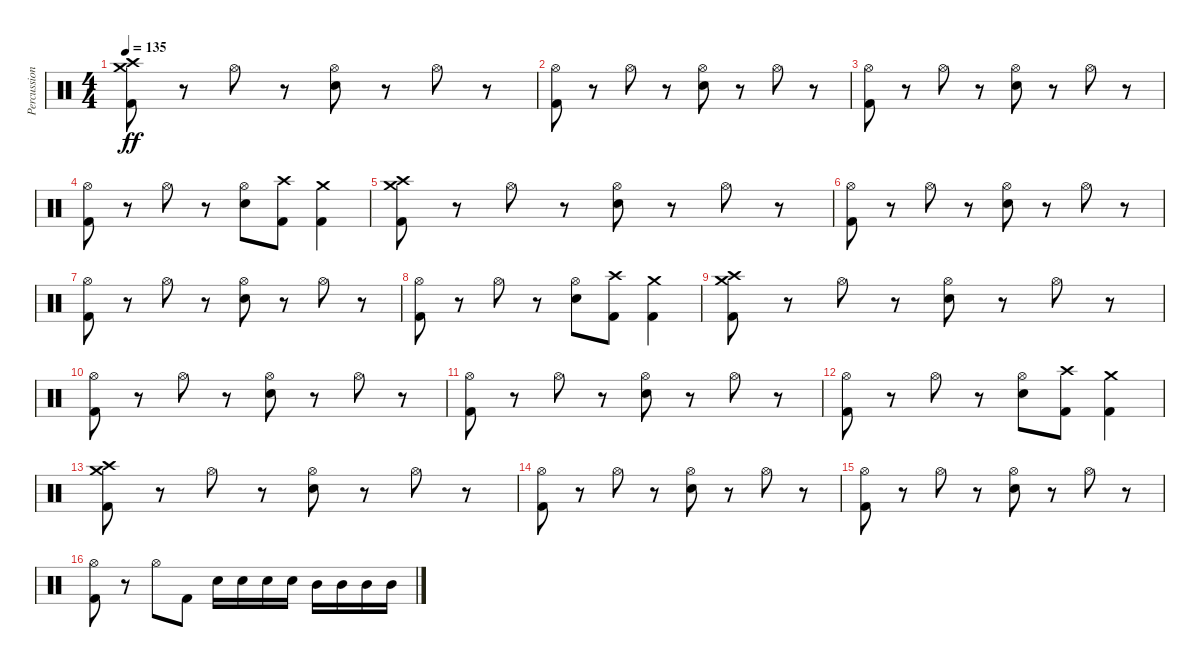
\track ("Percussion" "Percussion") {instrument percussion}
\staff {score}
\articulation defaults
\ts (4 4)
\tempo 135
\clef neutral
\ks c
("Kick (hit) 2" "Crash medium (hit)" "Crash high (hit)").8{dy ff} r.8 "Hi-Hat (open)".8 r.8 ("Electric Snare (hit)" "Hi-Hat (open)").8 r.8 "Hi-Hat (open)".8 r.8 |
("Kick (hit) 2" "Hi-Hat (open)").8 r.8 "Hi-Hat (open)".8 r.8 ("Electric Snare (hit)" "Hi-Hat (open)").8 r.8 "Hi-Hat (open)".8 r.8 |
("Kick (hit) 2" "Hi-Hat (open)").8 r.8 "Hi-Hat (open)".8 r.8 ("Electric Snare (hit)" "Hi-Hat (open)").8 r.8 "Hi-Hat (open)".8 r.8 |
("Kick (hit) 2" "Hi-Hat (open)").8 r.8 "Hi-Hat (open)".8 r.8 ("Electric Snare (hit)" "Hi-Hat (open)").8 ("Kick (hit) 2" "Crash high (hit)").8 ("Kick (hit) 2" "Crash medium (hit)").4 |
("Kick (hit) 2" "Crash medium (hit)" "Crash high (hit)").8 r.8 "Hi-Hat (open)".8 r.8 ("Electric Snare (hit)" "Hi-Hat (open)").8 r.8 "Hi-Hat (open)".8 r.8 |
("Kick (hit) 2" "Hi-Hat (open)").8 r.8 "Hi-Hat (open)".8 r.8 ("Electric Snare (hit)" "Hi-Hat (open)").8 r.8 "Hi-Hat (open)".8 r.8 |
("Kick (hit) 2" "Hi-Hat (open)").8 r.8 "Hi-Hat (open)".8 r.8 ("Electric Snare (hit)" "Hi-Hat (open)").8 r.8 "Hi-Hat (open)".8 r.8 |
("Kick (hit) 2" "Hi-Hat (open)").8 r.8 "Hi-Hat (open)".8 r.8 ("Electric Snare (hit)" "Hi-Hat (open)").8 ("Kick (hit) 2" "Crash high (hit)").8 ("Kick (hit) 2" "Crash medium (hit)").4 |
("Kick (hit) 2" "Crash medium (hit)" "Crash high (hit)").8 r.8 "Hi-Hat (open)".8 r.8 ("Electric Snare (hit)" "Hi-Hat (open)").8 r.8 "Hi-Hat (open)".8 r.8 |
("Kick (hit) 2" "Hi-Hat (open)").8 r.8 "Hi-Hat (open)".8 r.8 ("Electric Snare (hit)" "Hi-Hat (open)").8 r.8 "Hi-Hat (open)".8 r.8 |
("Kick (hit) 2" "Hi-Hat (open)").8 r.8 "Hi-Hat (open)".8 r.8 ("Electric Snare (hit)" "Hi-Hat (open)").8 r.8 "Hi-Hat (open)".8 r.8 |
("Kick (hit) 2" "Hi-Hat (open)").8 r.8 "Hi-Hat (open)".8 r.8 ("Electric Snare (hit)" "Hi-Hat (open)").8 ("Kick (hit) 2" "Crash high (hit)").8 ("Kick (hit) 2" "Crash medium (hit)").4 |
("Kick (hit) 2" "Crash medium (hit)" "Crash high (hit)").8 r.8 "Hi-Hat (open)".8 r.8 ("Electric Snare (hit)" "Hi-Hat (open)").8 r.8 "Hi-Hat (open)".8 r.8 |
("Kick (hit) 2" "Hi-Hat (open)").8 r.8 "Hi-Hat (open)".8 r.8 ("Electric Snare (hit)" "Hi-Hat (open)").8 r.8 "Hi-Hat (open)".8 r.8 |
("Kick (hit) 2" "Hi-Hat (open)").8 r.8 "Hi-Hat (open)".8 r.8 ("Electric Snare (hit)" "Hi-Hat (open)").8 r.8 "Hi-Hat (open)".8 r.8 |
("Kick (hit) 2" "Hi-Hat (open)").8 r.8 "Hi-Hat (open)".8 "Kick (hit) 2".8 "Electric Snare (hit)".16 "Electric Snare (hit)".16 "Electric Snare (hit)".16 "Electric Snare (hit)".16 "Mid Tom (hit)".16 "Mid Tom (hit)".16 "Mid Tom (hit)".16 "Mid Tom (hit)".16
